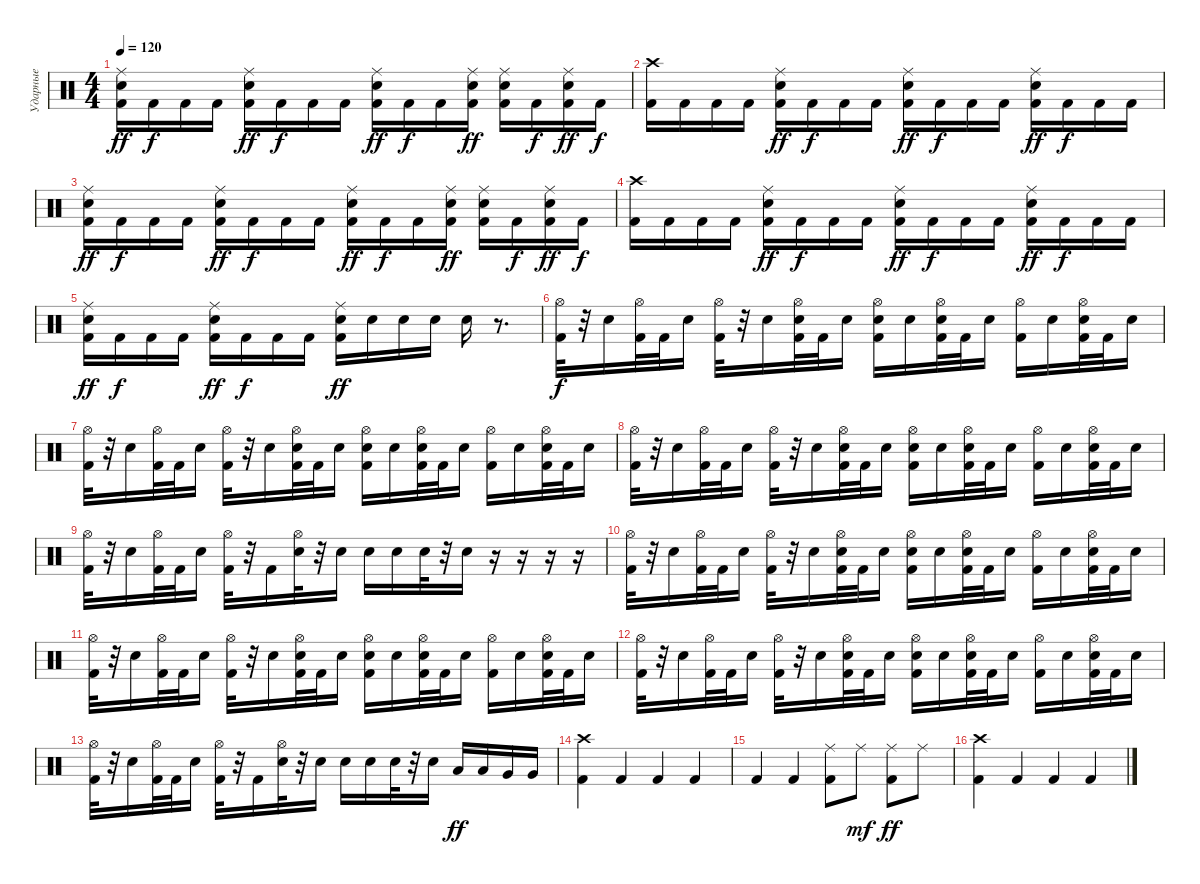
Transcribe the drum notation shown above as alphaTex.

\track ("Ударные" "Ударные") {instrument percussion}
\staff {score}
\articulation defaults
\ts (4 4)
\tempo 120
\clef neutral
\ks c
("Ride (middle)" "Kick (hit) 2" "Electric Snare (hit)").16{dy ff} "Kick (hit) 2".16{dy f} "Kick (hit) 2".16 "Kick (hit) 2".16 ("Ride (middle)" "Kick (hit) 2" "Electric Snare (hit)").16{dy ff} "Kick (hit) 2".16{dy f} "Kick (hit) 2".16 "Kick (hit) 2".16 ("Ride (middle)" "Kick (hit) 2" "Electric Snare (hit)").16{dy ff} "Kick (hit) 2".16{dy f} "Kick (hit) 2".16 ("Ride (middle)" "Kick (hit) 2" "Electric Snare (hit)").16{dy ff} ("Ride (middle)" "Kick (hit) 2" "Electric Snare (hit)").16 "Kick (hit) 2".16{dy f} ("Ride (middle)" "Kick (hit) 2" "Electric Snare (hit)").16{dy ff} "Kick (hit) 2".16{dy f} |
("Crash high (hit)" "Kick (hit) 2").16 "Kick (hit) 2".16 "Kick (hit) 2".16 "Kick (hit) 2".16 ("Ride (middle)" "Kick (hit) 2" "Electric Snare (hit)").16{dy ff} "Kick (hit) 2".16{dy f} "Kick (hit) 2".16 "Kick (hit) 2".16 ("Ride (middle)" "Kick (hit) 2" "Electric Snare (hit)").16{dy ff} "Kick (hit) 2".16{dy f} "Kick (hit) 2".16 "Kick (hit) 2".16 ("Ride (middle)" "Kick (hit) 2" "Electric Snare (hit)").16{dy ff} "Kick (hit) 2".16{dy f} "Kick (hit) 2".16 "Kick (hit) 2".16 |
("Ride (middle)" "Kick (hit) 2" "Electric Snare (hit)").16{dy ff} "Kick (hit) 2".16{dy f} "Kick (hit) 2".16 "Kick (hit) 2".16 ("Ride (middle)" "Kick (hit) 2" "Electric Snare (hit)").16{dy ff} "Kick (hit) 2".16{dy f} "Kick (hit) 2".16 "Kick (hit) 2".16 ("Ride (middle)" "Kick (hit) 2" "Electric Snare (hit)").16{dy ff} "Kick (hit) 2".16{dy f} "Kick (hit) 2".16 ("Ride (middle)" "Kick (hit) 2" "Electric Snare (hit)").16{dy ff} ("Ride (middle)" "Kick (hit) 2" "Electric Snare (hit)").16 "Kick (hit) 2".16{dy f} ("Ride (middle)" "Kick (hit) 2" "Electric Snare (hit)").16{dy ff} "Kick (hit) 2".16{dy f} |
("Crash high (hit)" "Kick (hit) 2").16 "Kick (hit) 2".16 "Kick (hit) 2".16 "Kick (hit) 2".16 ("Ride (middle)" "Kick (hit) 2" "Electric Snare (hit)").16{dy ff} "Kick (hit) 2".16{dy f} "Kick (hit) 2".16 "Kick (hit) 2".16 ("Ride (middle)" "Kick (hit) 2" "Electric Snare (hit)").16{dy ff} "Kick (hit) 2".16{dy f} "Kick (hit) 2".16 "Kick (hit) 2".16 ("Ride (middle)" "Kick (hit) 2" "Electric Snare (hit)").16{dy ff} "Kick (hit) 2".16{dy f} "Kick (hit) 2".16 "Kick (hit) 2".16 |
("Ride (middle)" "Kick (hit) 2" "Electric Snare (hit)").16{dy ff} "Kick (hit) 2".16{dy f} "Kick (hit) 2".16 "Kick (hit) 2".16 ("Ride (middle)" "Kick (hit) 2" "Electric Snare (hit)").16{dy ff} "Kick (hit) 2".16{dy f} "Kick (hit) 2".16 "Kick (hit) 2".16 ("Ride (middle)" "Kick (hit) 2" "Electric Snare (hit)").16{dy ff} "Electric Snare (hit)".16 "Electric Snare (hit)".16 "Electric Snare (hit)".16 "Electric Snare (hit)".16 r.8{d} |
("Hi-Hat (open)" "Kick (hit) 2").32{dy f} r.32 "Electric Snare (hit)".16 ("Hi-Hat (open)" "Kick (hit) 2").32 "Kick (hit) 2".32 "Electric Snare (hit)".16 ("Hi-Hat (open)" "Kick (hit) 2").32 r.32 "Electric Snare (hit)".16 ("Hi-Hat (open)" "Kick (hit) 2" "Electric Snare (hit)").32 "Kick (hit) 2".32 "Electric Snare (hit)".16 ("Hi-Hat (open)" "Kick (hit) 2" "Electric Snare (hit)").16 "Electric Snare (hit)".16 ("Hi-Hat (open)" "Kick (hit) 2" "Electric Snare (hit)").32 "Kick (hit) 2".32 "Electric Snare (hit)".16 ("Hi-Hat (open)" "Kick (hit) 2").16 "Electric Snare (hit)".16 ("Hi-Hat (open)" "Kick (hit) 2" "Electric Snare (hit)").32 "Kick (hit) 2".32 "Electric Snare (hit)".16 |
("Hi-Hat (open)" "Kick (hit) 2").32 r.32 "Electric Snare (hit)".16 ("Hi-Hat (open)" "Kick (hit) 2").32 "Kick (hit) 2".32 "Electric Snare (hit)".16 ("Hi-Hat (open)" "Kick (hit) 2").32 r.32 "Electric Snare (hit)".16 ("Hi-Hat (open)" "Kick (hit) 2" "Electric Snare (hit)").32 "Kick (hit) 2".32 "Electric Snare (hit)".16 ("Hi-Hat (open)" "Kick (hit) 2" "Electric Snare (hit)").16 "Electric Snare (hit)".16 ("Hi-Hat (open)" "Kick (hit) 2" "Electric Snare (hit)").32 "Kick (hit) 2".32 "Electric Snare (hit)".16 ("Hi-Hat (open)" "Kick (hit) 2").16 "Electric Snare (hit)".16 ("Hi-Hat (open)" "Kick (hit) 2" "Electric Snare (hit)").32 "Kick (hit) 2".32 "Electric Snare (hit)".16 |
("Hi-Hat (open)" "Kick (hit) 2").32 r.32 "Electric Snare (hit)".16 ("Hi-Hat (open)" "Kick (hit) 2").32 "Kick (hit) 2".32 "Electric Snare (hit)".16 ("Hi-Hat (open)" "Kick (hit) 2").32 r.32 "Electric Snare (hit)".16 ("Hi-Hat (open)" "Kick (hit) 2" "Electric Snare (hit)").32 "Kick (hit) 2".32 "Electric Snare (hit)".16 ("Hi-Hat (open)" "Kick (hit) 2" "Electric Snare (hit)").16 "Electric Snare (hit)".16 ("Hi-Hat (open)" "Kick (hit) 2" "Electric Snare (hit)").32 "Kick (hit) 2".32 "Electric Snare (hit)".16 ("Hi-Hat (open)" "Kick (hit) 2").16 "Electric Snare (hit)".16 ("Hi-Hat (open)" "Kick (hit) 2" "Electric Snare (hit)").32 "Kick (hit) 2".32 "Electric Snare (hit)".16 |
("Hi-Hat (open)" "Kick (hit) 2").32 r.32 "Electric Snare (hit)".16 ("Hi-Hat (open)" "Kick (hit) 2").32 "Kick (hit) 2".32 "Electric Snare (hit)".16 ("Hi-Hat (open)" "Kick (hit) 2").32 r.32 "Kick (hit) 2".16 ("Hi-Hat (open)" "Electric Snare (hit)").32 r.32 "Electric Snare (hit)".16 "Electric Snare (hit)".16 "Electric Snare (hit)".16 "Electric Snare (hit)".32 r.32 "Electric Snare (hit)".16 r.16 r.16 r.16 r.16 |
("Hi-Hat (open)" "Kick (hit) 2").32 r.32 "Electric Snare (hit)".16 ("Hi-Hat (open)" "Kick (hit) 2").32 "Kick (hit) 2".32 "Electric Snare (hit)".16 ("Hi-Hat (open)" "Kick (hit) 2").32 r.32 "Electric Snare (hit)".16 ("Hi-Hat (open)" "Kick (hit) 2" "Electric Snare (hit)").32 "Kick (hit) 2".32 "Electric Snare (hit)".16 ("Hi-Hat (open)" "Kick (hit) 2" "Electric Snare (hit)").16 "Electric Snare (hit)".16 ("Hi-Hat (open)" "Kick (hit) 2" "Electric Snare (hit)").32 "Kick (hit) 2".32 "Electric Snare (hit)".16 ("Hi-Hat (open)" "Kick (hit) 2").16 "Electric Snare (hit)".16 ("Hi-Hat (open)" "Kick (hit) 2" "Electric Snare (hit)").32 "Kick (hit) 2".32 "Electric Snare (hit)".16 |
("Hi-Hat (open)" "Kick (hit) 2").32 r.32 "Electric Snare (hit)".16 ("Hi-Hat (open)" "Kick (hit) 2").32 "Kick (hit) 2".32 "Electric Snare (hit)".16 ("Hi-Hat (open)" "Kick (hit) 2").32 r.32 "Electric Snare (hit)".16 ("Hi-Hat (open)" "Kick (hit) 2" "Electric Snare (hit)").32 "Kick (hit) 2".32 "Electric Snare (hit)".16 ("Hi-Hat (open)" "Kick (hit) 2" "Electric Snare (hit)").16 "Electric Snare (hit)".16 ("Hi-Hat (open)" "Kick (hit) 2" "Electric Snare (hit)").32 "Kick (hit) 2".32 "Electric Snare (hit)".16 ("Hi-Hat (open)" "Kick (hit) 2").16 "Electric Snare (hit)".16 ("Hi-Hat (open)" "Kick (hit) 2" "Electric Snare (hit)").32 "Kick (hit) 2".32 "Electric Snare (hit)".16 |
("Hi-Hat (open)" "Kick (hit) 2").32 r.32 "Electric Snare (hit)".16 ("Hi-Hat (open)" "Kick (hit) 2").32 "Kick (hit) 2".32 "Electric Snare (hit)".16 ("Hi-Hat (open)" "Kick (hit) 2").32 r.32 "Electric Snare (hit)".16 ("Hi-Hat (open)" "Kick (hit) 2" "Electric Snare (hit)").32 "Kick (hit) 2".32 "Electric Snare (hit)".16 ("Hi-Hat (open)" "Kick (hit) 2" "Electric Snare (hit)").16 "Electric Snare (hit)".16 ("Hi-Hat (open)" "Kick (hit) 2" "Electric Snare (hit)").32 "Kick (hit) 2".32 "Electric Snare (hit)".16 ("Hi-Hat (open)" "Kick (hit) 2").16 "Electric Snare (hit)".16 ("Hi-Hat (open)" "Kick (hit) 2" "Electric Snare (hit)").32 "Kick (hit) 2".32 "Electric Snare (hit)".16 |
("Hi-Hat (open)" "Kick (hit) 2").32 r.32 "Electric Snare (hit)".16 ("Hi-Hat (open)" "Kick (hit) 2").32 "Kick (hit) 2".32 "Electric Snare (hit)".16 ("Hi-Hat (open)" "Kick (hit) 2").32 r.32 "Kick (hit) 2".16 ("Hi-Hat (open)" "Electric Snare (hit)").32 r.32 "Electric Snare (hit)".16 "Electric Snare (hit)".16 "Electric Snare (hit)".16 "Electric Snare (hit)".32 r.32 "Electric Snare (hit)".16 "Low Tom (hit)".16{dy ff} "Low Tom (hit)".16 "Very Low Tom (hit)".16 "Very Low Tom (hit)".16 |
("Crash high (hit)" "Kick (hit) 2").4 "Kick (hit) 2".4 "Kick (hit) 2".4 "Kick (hit) 2".4 |
"Kick (hit) 2".4 "Kick (hit) 2".4 ("Ride (middle)" "Kick (hit) 2").8 "Ride (middle)".8{dy mf} ("Ride (middle)" "Kick (hit) 2").8{dy ff} "Ride (middle)".8 |
("Crash high (hit)" "Kick (hit) 2").4 "Kick (hit) 2".4 "Kick (hit) 2".4 "Kick (hit) 2".4
